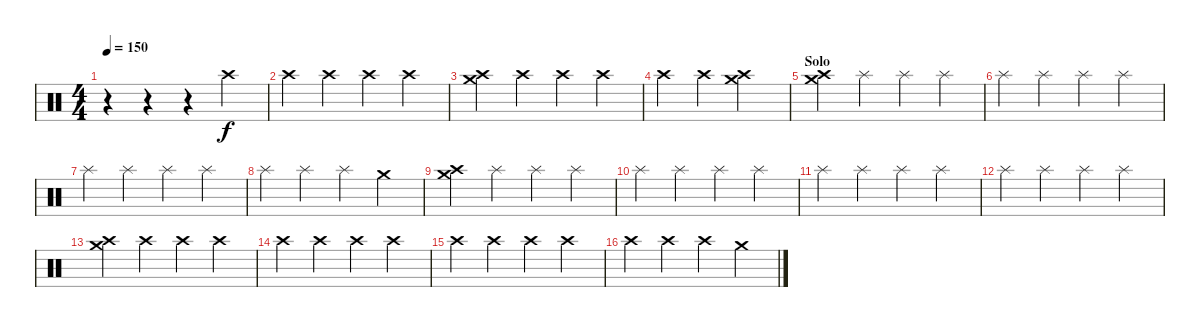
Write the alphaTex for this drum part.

\track "" {instrument percussion}
\staff {score}
\articulation defaults
\ts (4 4)
\tempo 150
\clef neutral
\ks c
r.4{dy f} r.4 r.4 "Crash high (hit)".4 |
"Crash high (hit)".4 "Crash high (hit)".4 "Crash high (hit)".4 "Crash high (hit)".4 |
("Crash medium (hit)" "Crash high (hit)").4 "Crash high (hit)".4 "Crash high (hit)".4 "Crash high (hit)".4 |
"Crash high (hit)".4 "Crash high (hit)".4 ("Crash medium (hit)" "Crash high (hit)").2 |
\section ("" "Solo")
("Crash medium (hit)" "Crash high (hit)").4 "Splash (hit)".4 "Splash (hit)".4 "Splash (hit)".4 |
"Splash (hit)".4 "Splash (hit)".4 "Splash (hit)".4 "Splash (hit)".4 |
"Splash (hit)".4 "Splash (hit)".4 "Splash (hit)".4 "Splash (hit)".4 |
"Splash (hit)".4 "Splash (hit)".4 "Splash (hit)".4 "Crash medium (hit)".4 |
("Crash medium (hit)" "Crash high (hit)").4 "Splash (hit)".4 "Splash (hit)".4 "Splash (hit)".4 |
"Splash (hit)".4 "Splash (hit)".4 "Splash (hit)".4 "Splash (hit)".4 |
"Splash (hit)".4 "Splash (hit)".4 "Splash (hit)".4 "Splash (hit)".4 |
"Splash (hit)".4 "Splash (hit)".4 "Splash (hit)".4 "Splash (hit)".4 |
("Crash medium (hit)" "Crash high (hit)").4 "Crash high (hit)".4 "Crash high (hit)".4 "Crash high (hit)".4 |
"Crash high (hit)".4 "Crash high (hit)".4 "Crash high (hit)".4 "Crash high (hit)".4 |
"Crash high (hit)".4 "Crash high (hit)".4 "Crash high (hit)".4 "Crash high (hit)".4 |
"Crash high (hit)".4 "Crash high (hit)".4 "Crash high (hit)".4 "Crash medium (hit)".4
